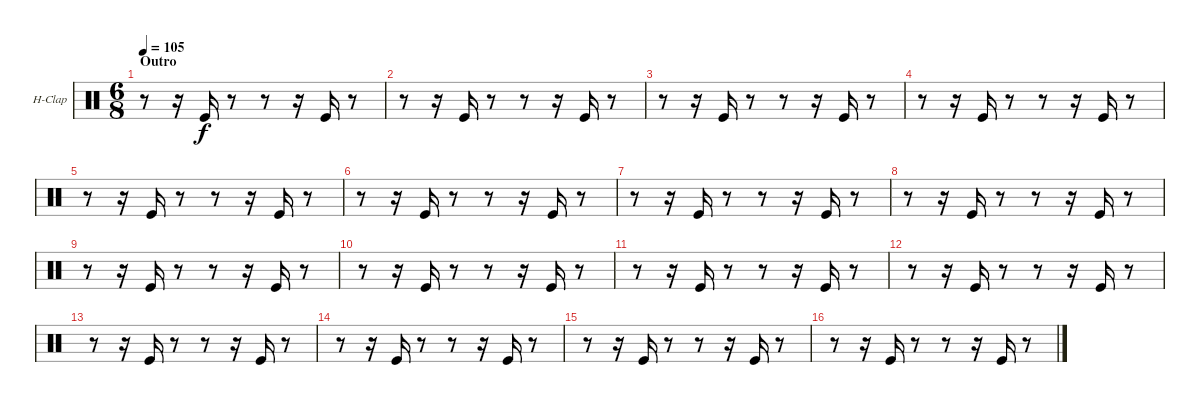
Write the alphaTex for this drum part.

\defaultSystemsLayout 4
\bracketExtendMode nobrackets
\firstSystemTrackNameOrientation horizontal
\otherSystemsTrackNameOrientation horizontal
\track ("Hand Clap" "H-Clap") {instrument percussion}
\staff {score}
\articulation defaults
\ts (6 8)
\section ("" "Outro")
\tempo 105
\clef neutral
\ks c
r.8{dy f} r.16 "Kick (hit)".16 r.8 r.8 r.16 "Kick (hit)".16 r.8 |
r.8 r.16 "Kick (hit)".16 r.8 r.8 r.16 "Kick (hit)".16 r.8 |
r.8 r.16 "Kick (hit)".16 r.8 r.8 r.16 "Kick (hit)".16 r.8 |
r.8 r.16 "Kick (hit)".16 r.8 r.8 r.16 "Kick (hit)".16 r.8 |
r.8 r.16 "Kick (hit)".16 r.8 r.8 r.16 "Kick (hit)".16 r.8 |
r.8 r.16 "Kick (hit)".16 r.8 r.8 r.16 "Kick (hit)".16 r.8 |
r.8 r.16 "Kick (hit)".16 r.8 r.8 r.16 "Kick (hit)".16 r.8 |
r.8 r.16 "Kick (hit)".16 r.8 r.8 r.16 "Kick (hit)".16 r.8 |
r.8 r.16 "Kick (hit)".16 r.8 r.8 r.16 "Kick (hit)".16 r.8 |
r.8 r.16 "Kick (hit)".16 r.8 r.8 r.16 "Kick (hit)".16 r.8 |
r.8 r.16 "Kick (hit)".16 r.8 r.8 r.16 "Kick (hit)".16 r.8 |
r.8 r.16 "Kick (hit)".16 r.8 r.8 r.16 "Kick (hit)".16 r.8 |
r.8 r.16 "Kick (hit)".16 r.8 r.8 r.16 "Kick (hit)".16 r.8 |
r.8 r.16 "Kick (hit)".16 r.8 r.8 r.16 "Kick (hit)".16 r.8 |
r.8 r.16 "Kick (hit)".16 r.8 r.8 r.16 "Kick (hit)".16 r.8 |
r.8 r.16 "Kick (hit)".16 r.8 r.8 r.16 "Kick (hit)".16 r.8
